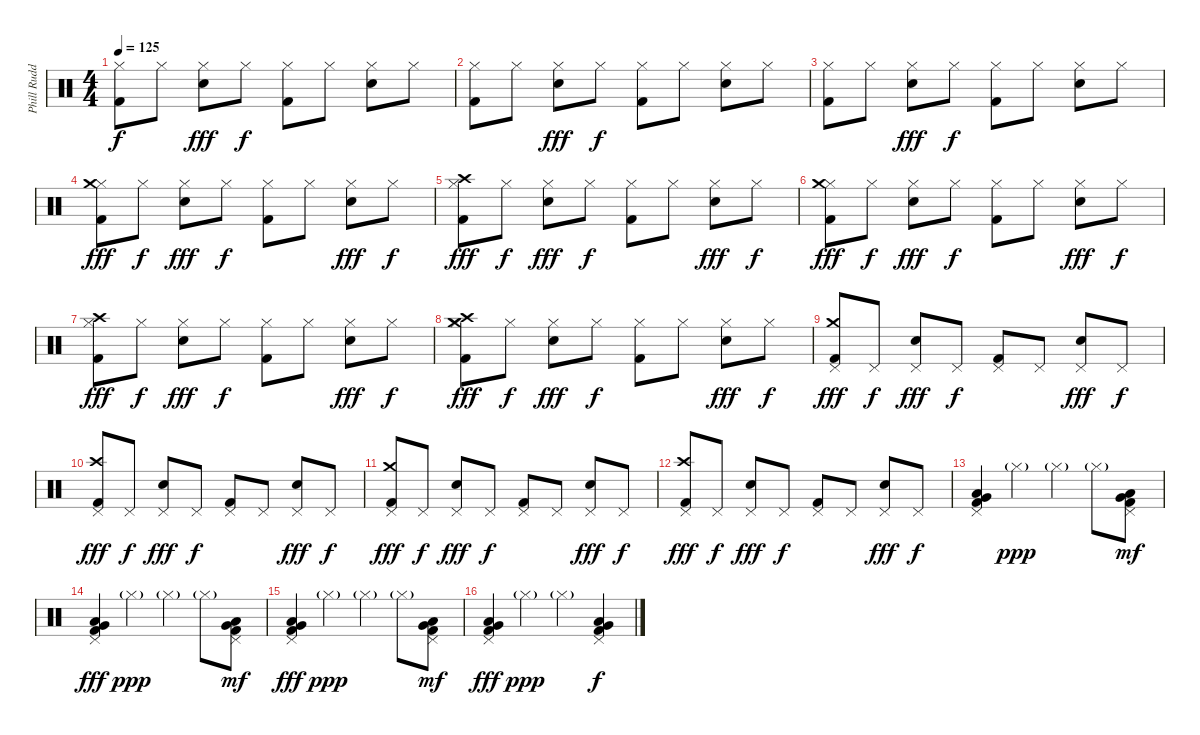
\track ("Phill Rudd" "Phill Rudd") {instrument percussion}
\staff {score}
\articulation defaults
\ts (4 4)
\tempo 125
\clef neutral
\ks c
("Hi-Hat (closed)" "Kick (hit) 2").8{dy f} "Hi-Hat (closed)".8 ("Hi-Hat (closed)" "Electric Snare (hit)").8{dy fff} "Hi-Hat (closed)".8{dy f} ("Hi-Hat (closed)" "Kick (hit) 2").8 "Hi-Hat (closed)".8 ("Hi-Hat (closed)" "Electric Snare (hit)").8 "Hi-Hat (closed)".8 |
("Hi-Hat (closed)" "Kick (hit) 2").8 "Hi-Hat (closed)".8 ("Hi-Hat (closed)" "Electric Snare (hit)").8{dy fff} "Hi-Hat (closed)".8{dy f} ("Hi-Hat (closed)" "Kick (hit) 2").8 "Hi-Hat (closed)".8 ("Hi-Hat (closed)" "Electric Snare (hit)").8 "Hi-Hat (closed)".8 |
("Hi-Hat (closed)" "Kick (hit) 2").8 "Hi-Hat (closed)".8 ("Hi-Hat (closed)" "Electric Snare (hit)").8{dy fff} "Hi-Hat (closed)".8{dy f} ("Hi-Hat (closed)" "Kick (hit) 2").8 "Hi-Hat (closed)".8 ("Hi-Hat (closed)" "Electric Snare (hit)").8 "Hi-Hat (closed)".8 |
("Hi-Hat (closed)" "Kick (hit) 2" "Crash medium (hit)").8{dy fff} "Hi-Hat (closed)".8{dy f} ("Hi-Hat (closed)" "Electric Snare (hit)").8{dy fff} "Hi-Hat (closed)".8{dy f} ("Hi-Hat (closed)" "Kick (hit) 2").8 "Hi-Hat (closed)".8 ("Hi-Hat (closed)" "Electric Snare (hit)").8{dy fff} "Hi-Hat (closed)".8{dy f} |
("Hi-Hat (closed)" "Kick (hit) 2" "Crash high (hit)").8{dy fff} "Hi-Hat (closed)".8{dy f} ("Hi-Hat (closed)" "Electric Snare (hit)").8{dy fff} "Hi-Hat (closed)".8{dy f} ("Hi-Hat (closed)" "Kick (hit) 2").8 "Hi-Hat (closed)".8 ("Hi-Hat (closed)" "Electric Snare (hit)").8{dy fff} "Hi-Hat (closed)".8{dy f} |
("Hi-Hat (closed)" "Kick (hit) 2" "Crash medium (hit)").8{dy fff} "Hi-Hat (closed)".8{dy f} ("Hi-Hat (closed)" "Electric Snare (hit)").8{dy fff} "Hi-Hat (closed)".8{dy f} ("Hi-Hat (closed)" "Kick (hit) 2").8 "Hi-Hat (closed)".8 ("Hi-Hat (closed)" "Electric Snare (hit)").8{dy fff} "Hi-Hat (closed)".8{dy f} |
("Hi-Hat (closed)" "Kick (hit) 2" "Crash high (hit)").8{dy fff} "Hi-Hat (closed)".8{dy f} ("Hi-Hat (closed)" "Electric Snare (hit)").8{dy fff} "Hi-Hat (closed)".8{dy f} ("Hi-Hat (closed)" "Kick (hit) 2").8 "Hi-Hat (closed)".8 ("Hi-Hat (closed)" "Electric Snare (hit)").8{dy fff} "Hi-Hat (closed)".8{dy f} |
("Hi-Hat (closed)" "Kick (hit) 2" "Crash medium (hit)" "Crash high (hit)").8{dy fff} "Hi-Hat (closed)".8{dy f} ("Hi-Hat (closed)" "Electric Snare (hit)").8{dy fff} "Hi-Hat (closed)".8{dy f} ("Hi-Hat (closed)" "Kick (hit) 2").8 "Hi-Hat (closed)".8 ("Hi-Hat (closed)" "Electric Snare (hit)").8{dy fff} "Hi-Hat (closed)".8{dy f} |
("Pedal Hi-Hat (hit)" "Kick (hit) 2" "Crash medium (hit)").8{dy fff} "Pedal Hi-Hat (hit)".8{dy f} ("Pedal Hi-Hat (hit)" "Electric Snare (hit)").8{dy fff} "Pedal Hi-Hat (hit)".8{dy f} ("Pedal Hi-Hat (hit)" "Kick (hit) 2").8 "Pedal Hi-Hat (hit)".8 ("Pedal Hi-Hat (hit)" "Electric Snare (hit)").8{dy fff} "Pedal Hi-Hat (hit)".8{dy f} |
("Pedal Hi-Hat (hit)" "Kick (hit) 2" "Crash high (hit)").8{dy fff} "Pedal Hi-Hat (hit)".8{dy f} ("Pedal Hi-Hat (hit)" "Electric Snare (hit)").8{dy fff} "Pedal Hi-Hat (hit)".8{dy f} ("Pedal Hi-Hat (hit)" "Kick (hit) 2").8 "Pedal Hi-Hat (hit)".8 ("Pedal Hi-Hat (hit)" "Electric Snare (hit)").8{dy fff} "Pedal Hi-Hat (hit)".8{dy f} |
("Pedal Hi-Hat (hit)" "Kick (hit) 2" "Crash medium (hit)").8{dy fff} "Pedal Hi-Hat (hit)".8{dy f} ("Pedal Hi-Hat (hit)" "Electric Snare (hit)").8{dy fff} "Pedal Hi-Hat (hit)".8{dy f} ("Pedal Hi-Hat (hit)" "Kick (hit) 2").8 "Pedal Hi-Hat (hit)".8 ("Pedal Hi-Hat (hit)" "Electric Snare (hit)").8{dy fff} "Pedal Hi-Hat (hit)".8{dy f} |
("Pedal Hi-Hat (hit)" "Kick (hit) 2" "Crash high (hit)").8{dy fff} "Pedal Hi-Hat (hit)".8{dy f} ("Pedal Hi-Hat (hit)" "Electric Snare (hit)").8{dy fff} "Pedal Hi-Hat (hit)".8{dy f} ("Pedal Hi-Hat (hit)" "Kick (hit) 2").8 "Pedal Hi-Hat (hit)".8 ("Pedal Hi-Hat (hit)" "Electric Snare (hit)").8{dy fff} "Pedal Hi-Hat (hit)".8{dy f} |
("Kick (hit) 2" "Very Low Tom (hit)" "Low Floor Tom (hit)" "Pedal Hi-Hat (hit)").4 "Hi-Hat (closed)"{g}.4{dy ppp} "Hi-Hat (closed)"{g}.4 "Hi-Hat (closed)"{g}.8 ("Kick (hit) 2" "Very Low Tom (hit)" "Low Floor Tom (hit)" "Pedal Hi-Hat (hit)").8{dy mf} |
("Kick (hit) 2" "Very Low Tom (hit)" "Low Floor Tom (hit)" "Pedal Hi-Hat (hit)").4{dy fff} "Hi-Hat (closed)"{g}.4{dy ppp} "Hi-Hat (closed)"{g}.4 "Hi-Hat (closed)"{g}.8 ("Kick (hit) 2" "Very Low Tom (hit)" "Low Floor Tom (hit)" "Pedal Hi-Hat (hit)").8{dy mf} |
("Kick (hit) 2" "Very Low Tom (hit)" "Low Floor Tom (hit)" "Pedal Hi-Hat (hit)").4{dy fff} "Hi-Hat (closed)"{g}.4{dy ppp} "Hi-Hat (closed)"{g}.4 "Hi-Hat (closed)"{g}.8 ("Kick (hit) 2" "Very Low Tom (hit)" "Low Floor Tom (hit)" "Pedal Hi-Hat (hit)").8{dy mf} |
("Kick (hit) 2" "Very Low Tom (hit)" "Low Floor Tom (hit)" "Pedal Hi-Hat (hit)").4{dy fff} "Hi-Hat (closed)"{g}.4{dy ppp} "Hi-Hat (closed)"{g}.4 ("Kick (hit) 2" "Very Low Tom (hit)" "Low Floor Tom (hit)" "Pedal Hi-Hat (hit)").4{dy f}
